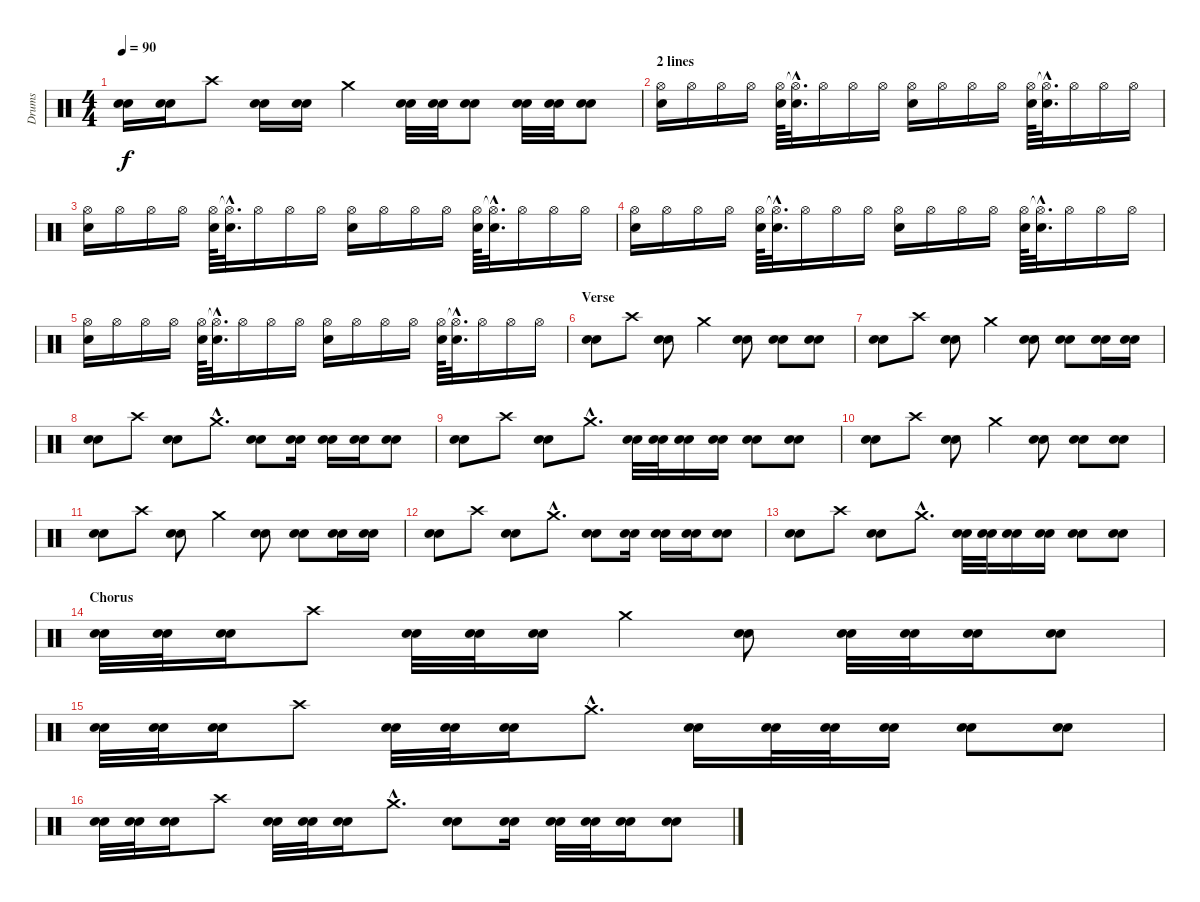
\track ("Drums" "Drums") {instrument percussion}
\staff {score}
\articulation defaults
\ts (4 4)
\tempo 90
\clef neutral
\ks c
("Electric Snare (hit)" "Snare (hit) 2").16{dy f} ("Electric Snare (hit)" "Snare (hit) 2").16 "Crash high (hit)".8 ("Electric Snare (hit)" "Snare (hit) 2").16 ("Electric Snare (hit)" "Snare (hit) 2").16 "Crash medium (hit)".4 ("Electric Snare (hit)" "Snare (hit) 2").32 ("Electric Snare (hit)" "Snare (hit) 2").32 ("Electric Snare (hit)" "Snare (hit) 2").8 ("Electric Snare (hit)" "Snare (hit) 2").32 ("Electric Snare (hit)" "Snare (hit) 2").32 ("Electric Snare (hit)" "Snare (hit) 2").8 |
\section ("" "2 lines")
("Hi-Hat (open)" "Electric Snare (hit)").16 "Hi-Hat (open)".16 "Hi-Hat (open)".16 "Hi-Hat (open)".16 ("Hi-Hat (open)" "Snare (hit) 2").64 ("Hi-Hat (open)"{hac t} "Electric Snare (hit)"{hac}).32{d} "Hi-Hat (open)".16 "Hi-Hat (open)".16 "Hi-Hat (open)".16 ("Hi-Hat (open)" "Electric Snare (hit)").16 "Hi-Hat (open)".16 "Hi-Hat (open)".16 "Hi-Hat (open)".16 ("Hi-Hat (open)" "Snare (hit) 2").64 ("Hi-Hat (open)"{hac t} "Electric Snare (hit)"{hac}).32{d} "Hi-Hat (open)".16 "Hi-Hat (open)".16 "Hi-Hat (open)".16 |
("Hi-Hat (open)" "Electric Snare (hit)").16 "Hi-Hat (open)".16 "Hi-Hat (open)".16 "Hi-Hat (open)".16 ("Hi-Hat (open)" "Snare (hit) 2").64 ("Hi-Hat (open)"{hac t} "Electric Snare (hit)"{hac}).32{d} "Hi-Hat (open)".16 "Hi-Hat (open)".16 "Hi-Hat (open)".16 ("Hi-Hat (open)" "Electric Snare (hit)").16 "Hi-Hat (open)".16 "Hi-Hat (open)".16 "Hi-Hat (open)".16 ("Hi-Hat (open)" "Snare (hit) 2").64 ("Hi-Hat (open)"{hac t} "Electric Snare (hit)"{hac}).32{d} "Hi-Hat (open)".16 "Hi-Hat (open)".16 "Hi-Hat (open)".16 |
("Hi-Hat (open)" "Electric Snare (hit)").16 "Hi-Hat (open)".16 "Hi-Hat (open)".16 "Hi-Hat (open)".16 ("Hi-Hat (open)" "Snare (hit) 2").64 ("Hi-Hat (open)"{hac t} "Electric Snare (hit)"{hac}).32{d} "Hi-Hat (open)".16 "Hi-Hat (open)".16 "Hi-Hat (open)".16 ("Hi-Hat (open)" "Electric Snare (hit)").16 "Hi-Hat (open)".16 "Hi-Hat (open)".16 "Hi-Hat (open)".16 ("Hi-Hat (open)" "Snare (hit) 2").64 ("Hi-Hat (open)"{hac t} "Electric Snare (hit)"{hac}).32{d} "Hi-Hat (open)".16 "Hi-Hat (open)".16 "Hi-Hat (open)".16 |
("Hi-Hat (open)" "Electric Snare (hit)").16 "Hi-Hat (open)".16 "Hi-Hat (open)".16 "Hi-Hat (open)".16 ("Hi-Hat (open)" "Snare (hit) 2").64 ("Hi-Hat (open)"{hac t} "Electric Snare (hit)"{hac}).32{d} "Hi-Hat (open)".16 "Hi-Hat (open)".16 "Hi-Hat (open)".16 ("Hi-Hat (open)" "Electric Snare (hit)").16 "Hi-Hat (open)".16 "Hi-Hat (open)".16 "Hi-Hat (open)".16 ("Hi-Hat (open)" "Snare (hit) 2").64 ("Hi-Hat (open)"{hac t} "Electric Snare (hit)"{hac}).32{d} "Hi-Hat (open)".16 "Hi-Hat (open)".16 "Hi-Hat (open)".16 |
\section ("" "Verse")
("Electric Snare (hit)" "Snare (hit) 2").8 "Crash high (hit)".8 ("Electric Snare (hit)" "Snare (hit) 2").8 "Crash medium (hit)".4 ("Electric Snare (hit)" "Snare (hit) 2").8 ("Electric Snare (hit)" "Snare (hit) 2").8 ("Electric Snare (hit)" "Snare (hit) 2").8 |
("Electric Snare (hit)" "Snare (hit) 2").8 "Crash high (hit)".8 ("Electric Snare (hit)" "Snare (hit) 2").8 "Crash medium (hit)".4 ("Electric Snare (hit)" "Snare (hit) 2").8 ("Electric Snare (hit)" "Snare (hit) 2").8 ("Electric Snare (hit)" "Snare (hit) 2").16 ("Electric Snare (hit)" "Snare (hit) 2").16 |
("Electric Snare (hit)" "Snare (hit) 2").8 "Crash high (hit)".8 ("Electric Snare (hit)" "Snare (hit) 2").8 "Crash medium (hit)"{hac}.8{d} ("Electric Snare (hit)" "Snare (hit) 2").8 ("Electric Snare (hit)" "Snare (hit) 2").16 ("Electric Snare (hit)" "Snare (hit) 2").16 ("Electric Snare (hit)" "Snare (hit) 2").16 ("Electric Snare (hit)" "Snare (hit) 2").8 |
("Electric Snare (hit)" "Snare (hit) 2").8 "Crash high (hit)".8 ("Electric Snare (hit)" "Snare (hit) 2").8 "Crash medium (hit)"{hac}.8{d} ("Electric Snare (hit)" "Snare (hit) 2").32 ("Electric Snare (hit)" "Snare (hit) 2").32 ("Electric Snare (hit)" "Snare (hit) 2").16 ("Electric Snare (hit)" "Snare (hit) 2").16 ("Electric Snare (hit)" "Snare (hit) 2").8 ("Electric Snare (hit)" "Snare (hit) 2").8 |
("Electric Snare (hit)" "Snare (hit) 2").8 "Crash high (hit)".8 ("Electric Snare (hit)" "Snare (hit) 2").8 "Crash medium (hit)".4 ("Electric Snare (hit)" "Snare (hit) 2").8 ("Electric Snare (hit)" "Snare (hit) 2").8 ("Electric Snare (hit)" "Snare (hit) 2").8 |
("Electric Snare (hit)" "Snare (hit) 2").8 "Crash high (hit)".8 ("Electric Snare (hit)" "Snare (hit) 2").8 "Crash medium (hit)".4 ("Electric Snare (hit)" "Snare (hit) 2").8 ("Electric Snare (hit)" "Snare (hit) 2").8 ("Electric Snare (hit)" "Snare (hit) 2").16 ("Electric Snare (hit)" "Snare (hit) 2").16 |
("Electric Snare (hit)" "Snare (hit) 2").8 "Crash high (hit)".8 ("Electric Snare (hit)" "Snare (hit) 2").8 "Crash medium (hit)"{hac}.8{d} ("Electric Snare (hit)" "Snare (hit) 2").8 ("Electric Snare (hit)" "Snare (hit) 2").16 ("Electric Snare (hit)" "Snare (hit) 2").16 ("Electric Snare (hit)" "Snare (hit) 2").16 ("Electric Snare (hit)" "Snare (hit) 2").8 |
("Electric Snare (hit)" "Snare (hit) 2").8 "Crash high (hit)".8 ("Electric Snare (hit)" "Snare (hit) 2").8 "Crash medium (hit)"{hac}.8{d} ("Electric Snare (hit)" "Snare (hit) 2").32 ("Electric Snare (hit)" "Snare (hit) 2").32 ("Electric Snare (hit)" "Snare (hit) 2").16 ("Electric Snare (hit)" "Snare (hit) 2").16 ("Electric Snare (hit)" "Snare (hit) 2").8 ("Electric Snare (hit)" "Snare (hit) 2").8 |
\section ("" "Chorus")
("Electric Snare (hit)" "Snare (hit) 2").32 ("Electric Snare (hit)" "Snare (hit) 2").32 ("Electric Snare (hit)" "Snare (hit) 2").16 "Crash high (hit)".8 ("Electric Snare (hit)" "Snare (hit) 2").32 ("Electric Snare (hit)" "Snare (hit) 2").32 ("Electric Snare (hit)" "Snare (hit) 2").16 "Crash medium (hit)".4 ("Electric Snare (hit)" "Snare (hit) 2").8 ("Electric Snare (hit)" "Snare (hit) 2").32 ("Electric Snare (hit)" "Snare (hit) 2").32 ("Electric Snare (hit)" "Snare (hit) 2").16 ("Electric Snare (hit)" "Snare (hit) 2").8 |
("Electric Snare (hit)" "Snare (hit) 2").32 ("Electric Snare (hit)" "Snare (hit) 2").32 ("Electric Snare (hit)" "Snare (hit) 2").16 "Crash high (hit)".8 ("Electric Snare (hit)" "Snare (hit) 2").32 ("Electric Snare (hit)" "Snare (hit) 2").32 ("Electric Snare (hit)" "Snare (hit) 2").16 "Crash medium (hit)"{hac}.8{d} ("Electric Snare (hit)" "Snare (hit) 2").16 ("Electric Snare (hit)" "Snare (hit) 2").32 ("Electric Snare (hit)" "Snare (hit) 2").32 ("Electric Snare (hit)" "Snare (hit) 2").16 ("Electric Snare (hit)" "Snare (hit) 2").8 ("Electric Snare (hit)" "Snare (hit) 2").8 |
("Electric Snare (hit)" "Snare (hit) 2").32 ("Electric Snare (hit)" "Snare (hit) 2").32 ("Electric Snare (hit)" "Snare (hit) 2").16 "Crash high (hit)".8 ("Electric Snare (hit)" "Snare (hit) 2").32 ("Electric Snare (hit)" "Snare (hit) 2").32 ("Electric Snare (hit)" "Snare (hit) 2").16 "Crash medium (hit)"{hac}.8{d} ("Electric Snare (hit)" "Snare (hit) 2").8 ("Electric Snare (hit)" "Snare (hit) 2").16 ("Electric Snare (hit)" "Snare (hit) 2").32 ("Electric Snare (hit)" "Snare (hit) 2").32 ("Electric Snare (hit)" "Snare (hit) 2").16 ("Electric Snare (hit)" "Snare (hit) 2").8
